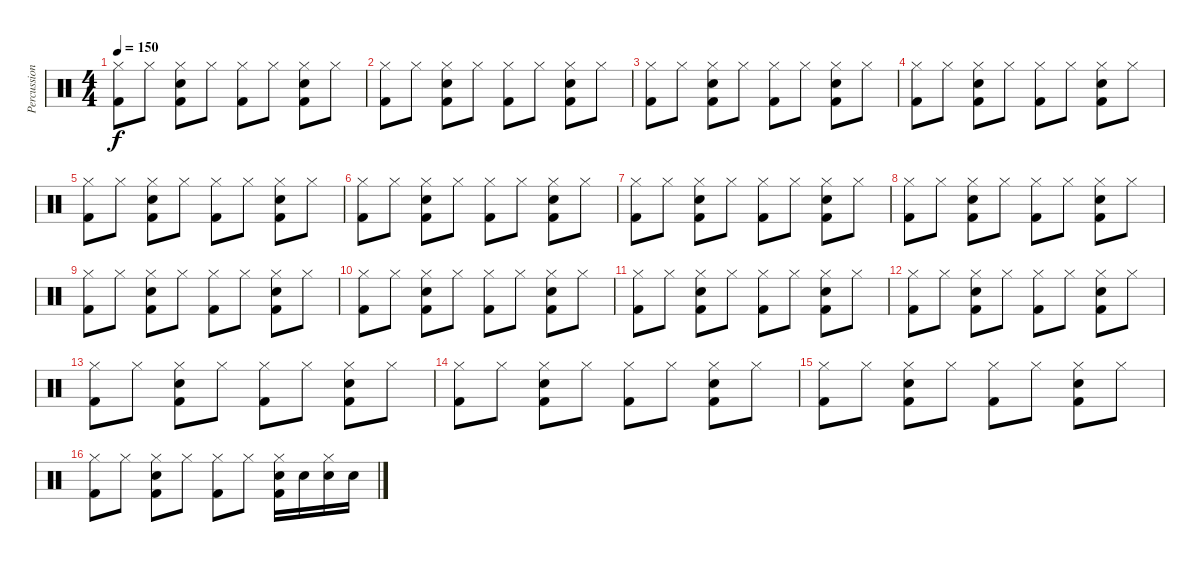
\track ("Percussion" "Percussion") {instrument percussion}
\staff {score}
\articulation defaults
\ts (4 4)
\tempo 150
\clef neutral
\ks c
("Hi-Hat (closed)" "Kick (hit) 2").8{dy f} "Hi-Hat (closed)".8 ("Hi-Hat (closed)" "Snare (hit) 2" "Kick (hit) 2").8 "Hi-Hat (closed)".8 ("Hi-Hat (closed)" "Kick (hit) 2").8 "Hi-Hat (closed)".8 ("Hi-Hat (closed)" "Snare (hit) 2" "Kick (hit) 2").8 "Hi-Hat (closed)".8 |
("Hi-Hat (closed)" "Kick (hit) 2").8 "Hi-Hat (closed)".8 ("Hi-Hat (closed)" "Snare (hit) 2" "Kick (hit) 2").8 "Hi-Hat (closed)".8 ("Hi-Hat (closed)" "Kick (hit) 2").8 "Hi-Hat (closed)".8 ("Hi-Hat (closed)" "Snare (hit) 2" "Kick (hit) 2").8 "Hi-Hat (closed)".8 |
("Hi-Hat (closed)" "Kick (hit) 2").8 "Hi-Hat (closed)".8 ("Hi-Hat (closed)" "Snare (hit) 2" "Kick (hit) 2").8 "Hi-Hat (closed)".8 ("Hi-Hat (closed)" "Kick (hit) 2").8 "Hi-Hat (closed)".8 ("Hi-Hat (closed)" "Snare (hit) 2" "Kick (hit) 2").8 "Hi-Hat (closed)".8 |
("Hi-Hat (closed)" "Kick (hit) 2").8 "Hi-Hat (closed)".8 ("Hi-Hat (closed)" "Snare (hit) 2" "Kick (hit) 2").8 "Hi-Hat (closed)".8 ("Hi-Hat (closed)" "Kick (hit) 2").8 "Hi-Hat (closed)".8 ("Hi-Hat (closed)" "Snare (hit) 2" "Kick (hit) 2").8 "Hi-Hat (closed)".8 |
("Hi-Hat (closed)" "Kick (hit) 2").8 "Hi-Hat (closed)".8 ("Hi-Hat (closed)" "Snare (hit) 2" "Kick (hit) 2").8 "Hi-Hat (closed)".8 ("Hi-Hat (closed)" "Kick (hit) 2").8 "Hi-Hat (closed)".8 ("Hi-Hat (closed)" "Snare (hit) 2" "Kick (hit) 2").8 "Hi-Hat (closed)".8 |
("Hi-Hat (closed)" "Kick (hit) 2").8 "Hi-Hat (closed)".8 ("Hi-Hat (closed)" "Snare (hit) 2" "Kick (hit) 2").8 "Hi-Hat (closed)".8 ("Hi-Hat (closed)" "Kick (hit) 2").8 "Hi-Hat (closed)".8 ("Hi-Hat (closed)" "Snare (hit) 2" "Kick (hit) 2").8 "Hi-Hat (closed)".8 |
("Hi-Hat (closed)" "Kick (hit) 2").8 "Hi-Hat (closed)".8 ("Hi-Hat (closed)" "Snare (hit) 2" "Kick (hit) 2").8 "Hi-Hat (closed)".8 ("Hi-Hat (closed)" "Kick (hit) 2").8 "Hi-Hat (closed)".8 ("Hi-Hat (closed)" "Snare (hit) 2" "Kick (hit) 2").8 "Hi-Hat (closed)".8 |
("Hi-Hat (closed)" "Kick (hit) 2").8 "Hi-Hat (closed)".8 ("Hi-Hat (closed)" "Snare (hit) 2" "Kick (hit) 2").8 "Hi-Hat (closed)".8 ("Hi-Hat (closed)" "Kick (hit) 2").8 "Hi-Hat (closed)".8 ("Hi-Hat (closed)" "Snare (hit) 2" "Kick (hit) 2").8 "Hi-Hat (closed)".8 |
("Hi-Hat (closed)" "Kick (hit) 2").8 "Hi-Hat (closed)".8 ("Hi-Hat (closed)" "Snare (hit) 2" "Kick (hit) 2").8 "Hi-Hat (closed)".8 ("Hi-Hat (closed)" "Kick (hit) 2").8 "Hi-Hat (closed)".8 ("Hi-Hat (closed)" "Snare (hit) 2" "Kick (hit) 2").8 "Hi-Hat (closed)".8 |
("Hi-Hat (closed)" "Kick (hit) 2").8 "Hi-Hat (closed)".8 ("Hi-Hat (closed)" "Snare (hit) 2" "Kick (hit) 2").8 "Hi-Hat (closed)".8 ("Hi-Hat (closed)" "Kick (hit) 2").8 "Hi-Hat (closed)".8 ("Hi-Hat (closed)" "Snare (hit) 2" "Kick (hit) 2").8 "Hi-Hat (closed)".8 |
("Hi-Hat (closed)" "Kick (hit) 2").8 "Hi-Hat (closed)".8 ("Hi-Hat (closed)" "Snare (hit) 2" "Kick (hit) 2").8 "Hi-Hat (closed)".8 ("Hi-Hat (closed)" "Kick (hit) 2").8 "Hi-Hat (closed)".8 ("Hi-Hat (closed)" "Snare (hit) 2" "Kick (hit) 2").8 "Hi-Hat (closed)".8 |
("Hi-Hat (closed)" "Kick (hit) 2").8 "Hi-Hat (closed)".8 ("Hi-Hat (closed)" "Snare (hit) 2" "Kick (hit) 2").8 "Hi-Hat (closed)".8 ("Hi-Hat (closed)" "Kick (hit) 2").8 "Hi-Hat (closed)".8 ("Hi-Hat (closed)" "Snare (hit) 2" "Kick (hit) 2").8 "Hi-Hat (closed)".8 |
("Hi-Hat (closed)" "Kick (hit) 2").8 "Hi-Hat (closed)".8 ("Hi-Hat (closed)" "Snare (hit) 2" "Kick (hit) 2").8 "Hi-Hat (closed)".8 ("Hi-Hat (closed)" "Kick (hit) 2").8 "Hi-Hat (closed)".8 ("Hi-Hat (closed)" "Snare (hit) 2" "Kick (hit) 2").8 "Hi-Hat (closed)".8 |
("Hi-Hat (closed)" "Kick (hit) 2").8 "Hi-Hat (closed)".8 ("Hi-Hat (closed)" "Snare (hit) 2" "Kick (hit) 2").8 "Hi-Hat (closed)".8 ("Hi-Hat (closed)" "Kick (hit) 2").8 "Hi-Hat (closed)".8 ("Hi-Hat (closed)" "Snare (hit) 2" "Kick (hit) 2").8 "Hi-Hat (closed)".8 |
("Hi-Hat (closed)" "Kick (hit) 2").8 "Hi-Hat (closed)".8 ("Hi-Hat (closed)" "Snare (hit) 2" "Kick (hit) 2").8 "Hi-Hat (closed)".8 ("Hi-Hat (closed)" "Kick (hit) 2").8 "Hi-Hat (closed)".8 ("Hi-Hat (closed)" "Snare (hit) 2" "Kick (hit) 2").8 "Hi-Hat (closed)".8 |
("Hi-Hat (closed)" "Kick (hit) 2").8 "Hi-Hat (closed)".8 ("Hi-Hat (closed)" "Snare (hit) 2" "Kick (hit) 2").8 "Hi-Hat (closed)".8 ("Hi-Hat (closed)" "Kick (hit) 2").8 "Hi-Hat (closed)".8 ("Hi-Hat (closed)" "Snare (hit) 2" "Kick (hit) 2").16 "Snare (hit) 2".16 ("Hi-Hat (closed)" "Snare (hit) 2").16 "Snare (hit) 2".16
